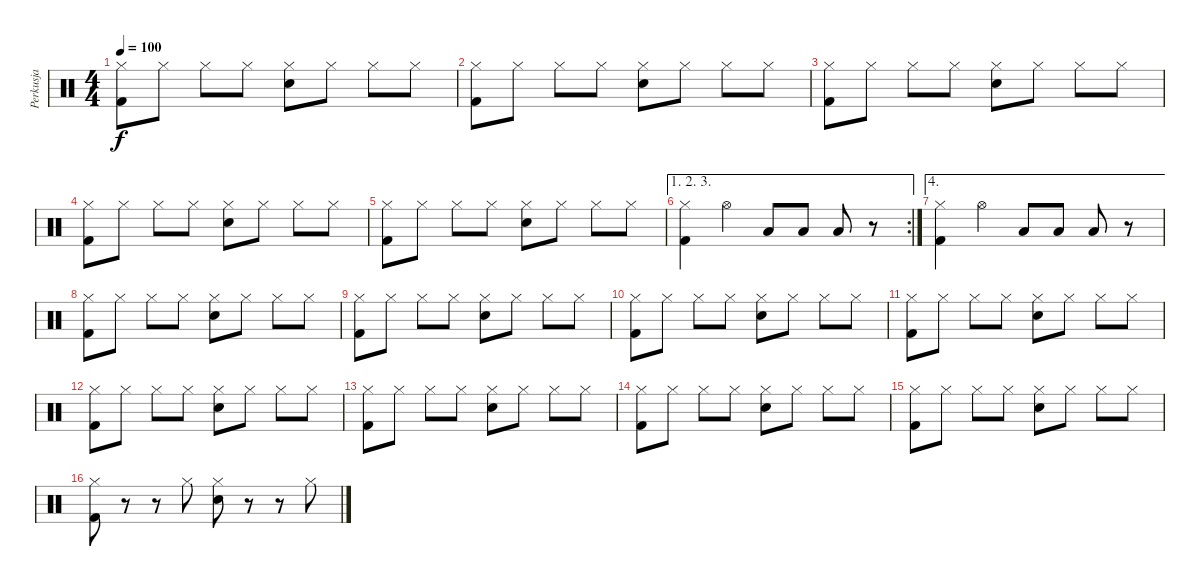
\track ("Perkusja" "Perkusja") {instrument percussion}
\staff {score}
\articulation defaults
\ts (4 4)
\tempo 100
\clef neutral
\ks c
("Hi-Hat (closed)" "Kick (hit) 2").8{dy f} "Hi-Hat (closed)".8 "Hi-Hat (closed)".8 "Hi-Hat (closed)".8 ("Hi-Hat (closed)" "Electric Snare (hit)").8 "Hi-Hat (closed)".8 "Hi-Hat (closed)".8 "Hi-Hat (closed)".8 |
("Hi-Hat (closed)" "Kick (hit) 2").8 "Hi-Hat (closed)".8 "Hi-Hat (closed)".8 "Hi-Hat (closed)".8 ("Hi-Hat (closed)" "Electric Snare (hit)").8 "Hi-Hat (closed)".8 "Hi-Hat (closed)".8 "Hi-Hat (closed)".8 |
("Hi-Hat (closed)" "Kick (hit) 2").8 "Hi-Hat (closed)".8 "Hi-Hat (closed)".8 "Hi-Hat (closed)".8 ("Hi-Hat (closed)" "Electric Snare (hit)").8 "Hi-Hat (closed)".8 "Hi-Hat (closed)".8 "Hi-Hat (closed)".8 |
("Hi-Hat (closed)" "Kick (hit) 2").8 "Hi-Hat (closed)".8 "Hi-Hat (closed)".8 "Hi-Hat (closed)".8 ("Hi-Hat (closed)" "Electric Snare (hit)").8 "Hi-Hat (closed)".8 "Hi-Hat (closed)".8 "Hi-Hat (closed)".8 |
("Hi-Hat (closed)" "Kick (hit) 2").8 "Hi-Hat (closed)".8 "Hi-Hat (closed)".8 "Hi-Hat (closed)".8 ("Hi-Hat (closed)" "Electric Snare (hit)").8 "Hi-Hat (closed)".8 "Hi-Hat (closed)".8 "Hi-Hat (closed)".8 |
\ae (1 2 3)
\rc 2
("Hi-Hat (closed)" "Kick (hit) 2").4 "Hi-Hat (open)".4 "Low Tom (hit)".8 "Low Tom (hit)".8 "Low Tom (hit)".8 r.8 |
\ae 4
("Hi-Hat (closed)" "Kick (hit) 2").4 "Hi-Hat (open)".4 "Low Tom (hit)".8 "Low Tom (hit)".8 "Low Tom (hit)".8 r.8 |
("Hi-Hat (closed)" "Kick (hit) 2").8 "Hi-Hat (closed)".8 "Hi-Hat (closed)".8 "Hi-Hat (closed)".8 ("Hi-Hat (closed)" "Electric Snare (hit)").8 "Hi-Hat (closed)".8 "Hi-Hat (closed)".8 "Hi-Hat (closed)".8 |
("Hi-Hat (closed)" "Kick (hit) 2").8 "Hi-Hat (closed)".8 "Hi-Hat (closed)".8 "Hi-Hat (closed)".8 ("Hi-Hat (closed)" "Electric Snare (hit)").8 "Hi-Hat (closed)".8 "Hi-Hat (closed)".8 "Hi-Hat (closed)".8 |
("Hi-Hat (closed)" "Kick (hit) 2").8 "Hi-Hat (closed)".8 "Hi-Hat (closed)".8 "Hi-Hat (closed)".8 ("Hi-Hat (closed)" "Electric Snare (hit)").8 "Hi-Hat (closed)".8 "Hi-Hat (closed)".8 "Hi-Hat (closed)".8 |
("Hi-Hat (closed)" "Kick (hit) 2").8 "Hi-Hat (closed)".8 "Hi-Hat (closed)".8 "Hi-Hat (closed)".8 ("Hi-Hat (closed)" "Electric Snare (hit)").8 "Hi-Hat (closed)".8 "Hi-Hat (closed)".8 "Hi-Hat (closed)".8 |
("Hi-Hat (closed)" "Kick (hit) 2").8 "Hi-Hat (closed)".8 "Hi-Hat (closed)".8 "Hi-Hat (closed)".8 ("Hi-Hat (closed)" "Electric Snare (hit)").8 "Hi-Hat (closed)".8 "Hi-Hat (closed)".8 "Hi-Hat (closed)".8 |
("Hi-Hat (closed)" "Kick (hit) 2").8 "Hi-Hat (closed)".8 "Hi-Hat (closed)".8 "Hi-Hat (closed)".8 ("Hi-Hat (closed)" "Electric Snare (hit)").8 "Hi-Hat (closed)".8 "Hi-Hat (closed)".8 "Hi-Hat (closed)".8 |
("Hi-Hat (closed)" "Kick (hit) 2").8 "Hi-Hat (closed)".8 "Hi-Hat (closed)".8 "Hi-Hat (closed)".8 ("Hi-Hat (closed)" "Electric Snare (hit)").8 "Hi-Hat (closed)".8 "Hi-Hat (closed)".8 "Hi-Hat (closed)".8 |
("Hi-Hat (closed)" "Kick (hit) 2").8 "Hi-Hat (closed)".8 "Hi-Hat (closed)".8 "Hi-Hat (closed)".8 ("Hi-Hat (closed)" "Electric Snare (hit)").8 "Hi-Hat (closed)".8 "Hi-Hat (closed)".8 "Hi-Hat (closed)".8 |
("Hi-Hat (closed)" "Kick (hit) 2").8 r.8 r.8 "Hi-Hat (closed)".8 ("Hi-Hat (closed)" "Electric Snare (hit)").8 r.8 r.8 "Hi-Hat (closed)".8
